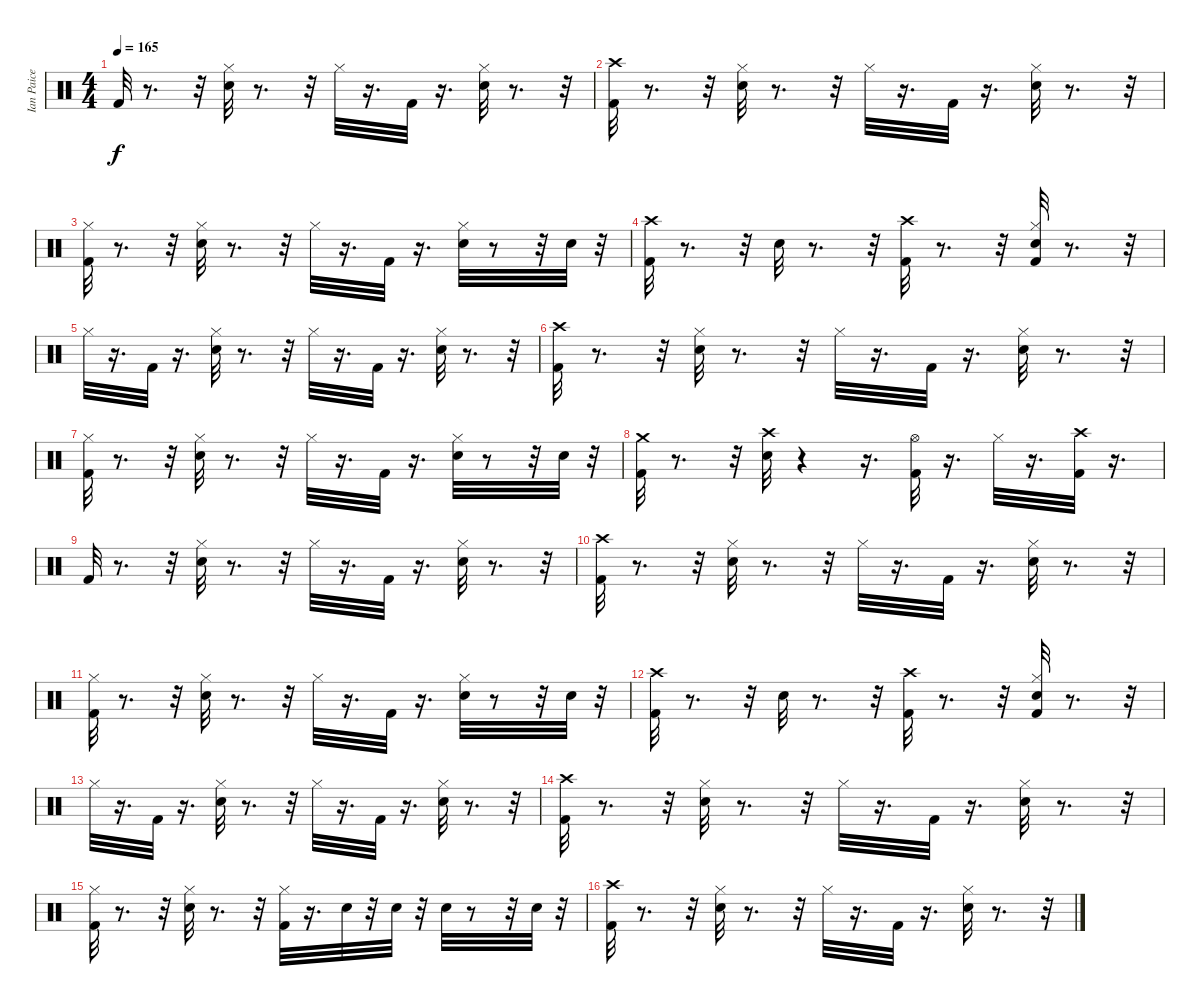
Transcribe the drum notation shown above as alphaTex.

\track ("Ian Paice" "Ian Paice") {instrument percussion}
\staff {score}
\articulation defaults
\ts (4 4)
\tempo 165
\clef neutral
\ks c "Kick (hit) 2".32{dy f}
r.8{d} r.32 ("Hi-Hat (closed)" "Snare (hit) 2").32 r.8{d} r.32 "Hi-Hat (closed)".32 r.16{d} "Kick (hit) 2".32 r.16{d} ("Hi-Hat (closed)" "Snare (hit) 2").32 r.8{d} r.32 |
("Crash high (hit)" "Kick (hit) 2").32 r.8{d} r.32 ("Hi-Hat (closed)" "Snare (hit) 2").32 r.8{d} r.32 "Hi-Hat (closed)".32 r.16{d} "Kick (hit) 2".32 r.16{d} ("Hi-Hat (closed)" "Snare (hit) 2").32 r.8{d} r.32 |
("Kick (hit) 2" "Hi-Hat (closed)").32 r.8{d} r.32 ("Snare (hit) 2" "Hi-Hat (closed)").32 r.8{d} r.32 "Hi-Hat (closed)".32 r.16{d} "Kick (hit) 2".32 r.16{d} ("Snare (hit) 2" "Hi-Hat (closed)").32 r.8 r.32 "Snare (hit) 2".32 r.32 |
("Crash high (hit)" "Kick (hit) 2").32 r.8{d} r.32 "Snare (hit) 2".32 r.8{d} r.32 ("Kick (hit) 2" "Crash high (hit)").32 r.8{d} r.32 ("Hi-Hat (closed)" "Snare (hit) 2" "Kick (hit) 2").32 r.8{d} r.32 |
"Hi-Hat (closed)".32 r.16{d} "Kick (hit) 2".32 r.16{d} ("Snare (hit) 2" "Hi-Hat (closed)").32 r.8{d} r.32 "Hi-Hat (closed)".32 r.16{d} "Kick (hit) 2".32 r.16{d} ("Snare (hit) 2" "Hi-Hat (closed)").32 r.8{d} r.32 |
("Kick (hit) 2" "Crash high (hit)").32 r.8{d} r.32 ("Hi-Hat (closed)" "Snare (hit) 2").32 r.8{d} r.32 "Hi-Hat (closed)".32 r.16{d} "Kick (hit) 2".32 r.16{d} ("Hi-Hat (closed)" "Snare (hit) 2").32 r.8{d} r.32 |
("Hi-Hat (closed)" "Kick (hit) 2").32 r.8{d} r.32 ("Hi-Hat (closed)" "Snare (hit) 2").32 r.8{d} r.32 "Hi-Hat (closed)".32 r.16{d} "Kick (hit) 2".32 r.16{d} ("Hi-Hat (closed)" "Snare (hit) 2").32 r.8 r.32 "Snare (hit) 2".32 r.32 |
("Crash medium (hit)" "Kick (hit) 2").32 r.8{d} r.32 ("Snare (hit) 2" "Crash high (hit)").32 r.4 r.16{d} ("Hi-Hat (open)" "Kick (hit) 2").32 r.16{d} "Hi-Hat (closed)".32 r.16{d} ("Crash high (hit)" "Kick (hit) 2").32 r.16{d} |
"Kick (hit) 2".32 r.8{d} r.32 ("Hi-Hat (closed)" "Snare (hit) 2").32 r.8{d} r.32 "Hi-Hat (closed)".32 r.16{d} "Kick (hit) 2".32 r.16{d} ("Hi-Hat (closed)" "Snare (hit) 2").32 r.8{d} r.32 |
("Crash high (hit)" "Kick (hit) 2").32 r.8{d} r.32 ("Hi-Hat (closed)" "Snare (hit) 2").32 r.8{d} r.32 "Hi-Hat (closed)".32 r.16{d} "Kick (hit) 2".32 r.16{d} ("Hi-Hat (closed)" "Snare (hit) 2").32 r.8{d} r.32 |
("Kick (hit) 2" "Hi-Hat (closed)").32 r.8{d} r.32 ("Snare (hit) 2" "Hi-Hat (closed)").32 r.8{d} r.32 "Hi-Hat (closed)".32 r.16{d} "Kick (hit) 2".32 r.16{d} ("Snare (hit) 2" "Hi-Hat (closed)").32 r.8 r.32 "Snare (hit) 2".32 r.32 |
("Crash high (hit)" "Kick (hit) 2").32 r.8{d} r.32 "Snare (hit) 2".32 r.8{d} r.32 ("Kick (hit) 2" "Crash high (hit)").32 r.8{d} r.32 ("Hi-Hat (closed)" "Snare (hit) 2" "Kick (hit) 2").32 r.8{d} r.32 |
"Hi-Hat (closed)".32 r.16{d} "Kick (hit) 2".32 r.16{d} ("Snare (hit) 2" "Hi-Hat (closed)").32 r.8{d} r.32 "Hi-Hat (closed)".32 r.16{d} "Kick (hit) 2".32 r.16{d} ("Snare (hit) 2" "Hi-Hat (closed)").32 r.8{d} r.32 |
("Kick (hit) 2" "Crash high (hit)").32 r.8{d} r.32 ("Hi-Hat (closed)" "Snare (hit) 2").32 r.8{d} r.32 "Hi-Hat (closed)".32 r.16{d} "Kick (hit) 2".32 r.16{d} ("Hi-Hat (closed)" "Snare (hit) 2").32 r.8{d} r.32 |
("Hi-Hat (closed)" "Kick (hit) 2").32 r.8{d} r.32 ("Hi-Hat (closed)" "Snare (hit) 2").32 r.8{d} r.32 ("Kick (hit) 2" "Hi-Hat (closed)").32 r.16{d} "Snare (hit) 2".32 r.32 "Snare (hit) 2".32 r.32 "Snare (hit) 2".32 r.8 r.32 "Snare (hit) 2".32 r.32 |
("Crash high (hit)" "Kick (hit) 2").32 r.8{d} r.32 ("Hi-Hat (closed)" "Snare (hit) 2").32 r.8{d} r.32 "Hi-Hat (closed)".32 r.16{d} "Kick (hit) 2".32 r.16{d} ("Hi-Hat (closed)" "Snare (hit) 2").32 r.8{d} r.32
